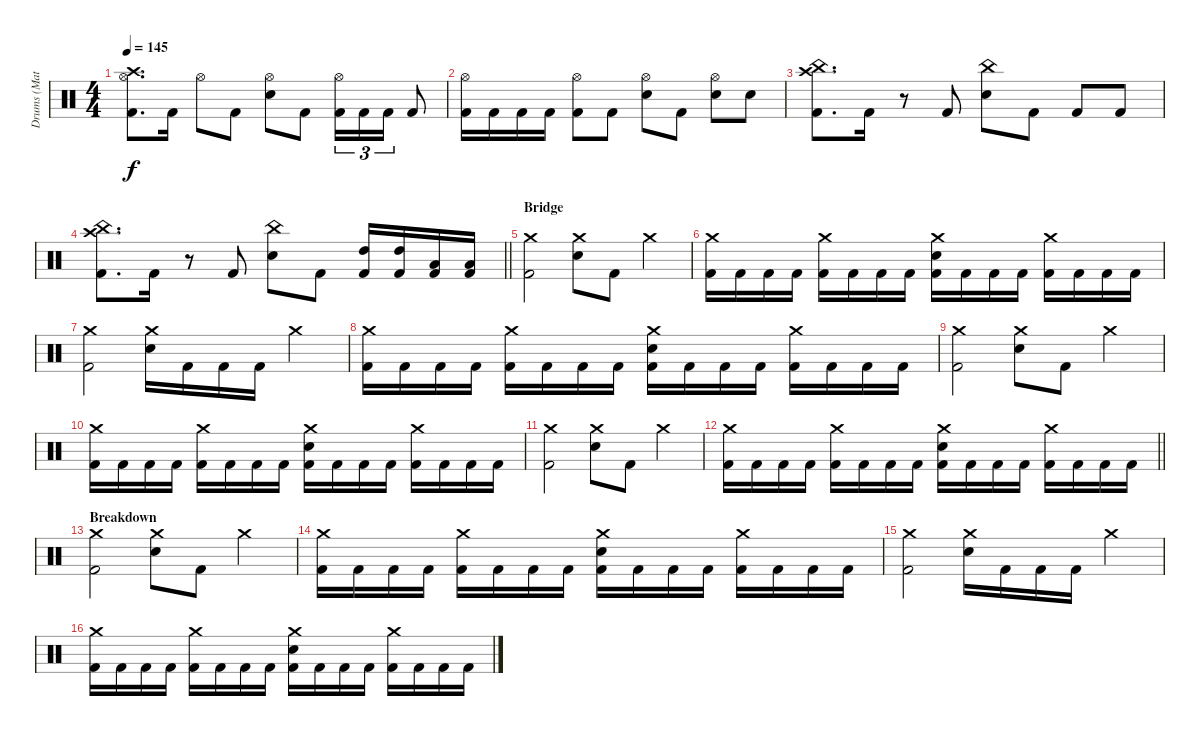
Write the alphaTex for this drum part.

\track ("Drums (Matt Kuykendall)" "Drums (Mat") {instrument percussion}
\staff {score}
\articulation defaults
\ts (4 4)
\tempo 145
\clef neutral
\ks c
("Hi-Hat (open)" "Crash high (hit)" "Kick (hit) 2").8{d dy f} "Kick (hit) 2".16 "Hi-Hat (open)".8 "Kick (hit) 2".8 ("Hi-Hat (open)" "Electric Snare (hit)").8 "Kick (hit) 2".8 ("Hi-Hat (open)" "Kick (hit) 2").16{tu (3 2)} "Kick (hit) 2".16{tu (3 2)} "Kick (hit) 2".16{tu (3 2)} "Kick (hit) 2".8 |
("Hi-Hat (open)" "Kick (hit) 2").16 "Kick (hit) 2".16 "Kick (hit) 2".16 "Kick (hit) 2".16 ("Hi-Hat (open)" "Kick (hit) 2").8 "Kick (hit) 2".8 ("Hi-Hat (open)" "Electric Snare (hit)").8 "Kick (hit) 2".8 ("Hi-Hat (open)" "Electric Snare (hit)").8 "Electric Snare (hit)".8 |
("China (hit)" "Crash high (hit)" "Kick (hit) 2").8{d} "Kick (hit) 2".16 r.8 "Kick (hit) 2".8 ("China (hit)" "Electric Snare (hit)").8 "Kick (hit) 2".8 "Kick (hit) 2".8 "Kick (hit) 2".8 |
\barLineRight lightlight
("China (hit)" "Crash high (hit)" "Kick (hit) 2").8{d} "Kick (hit) 2".16 r.8 "Kick (hit) 2".8 ("China (hit)" "Electric Snare (hit)").8 "Kick (hit) 2".8 ("High Tom (hit)" "Kick (hit) 2").16 ("High Tom (hit)" "Kick (hit) 2").16 ("Low Tom (hit)" "Kick (hit) 2").16 ("Low Tom (hit)" "Kick (hit) 2").16 |
\section ("" "Bridge")
("Crash medium (hit)" "Kick (hit) 2").2 ("Crash medium (hit)" "Electric Snare (hit)").8 "Kick (hit) 2".8 "Crash medium (hit)".4 |
("Crash medium (hit)" "Kick (hit) 2").16 "Kick (hit) 2".16 "Kick (hit) 2".16 "Kick (hit) 2".16 ("Crash medium (hit)" "Kick (hit) 2").16 "Kick (hit) 2".16 "Kick (hit) 2".16 "Kick (hit) 2".16 ("Crash medium (hit)" "Electric Snare (hit)" "Kick (hit) 2").16 "Kick (hit) 2".16 "Kick (hit) 2".16 "Kick (hit) 2".16 ("Crash medium (hit)" "Kick (hit) 2").16 "Kick (hit) 2".16 "Kick (hit) 2".16 "Kick (hit) 2".16 |
("Crash medium (hit)" "Kick (hit) 2").2 ("Crash medium (hit)" "Electric Snare (hit)").16 "Kick (hit) 2".16 "Kick (hit) 2".16 "Kick (hit) 2".16 "Crash medium (hit)".4 |
("Crash medium (hit)" "Kick (hit) 2").16 "Kick (hit) 2".16 "Kick (hit) 2".16 "Kick (hit) 2".16 ("Crash medium (hit)" "Kick (hit) 2").16 "Kick (hit) 2".16 "Kick (hit) 2".16 "Kick (hit) 2".16 ("Crash medium (hit)" "Electric Snare (hit)" "Kick (hit) 2").16 "Kick (hit) 2".16 "Kick (hit) 2".16 "Kick (hit) 2".16 ("Crash medium (hit)" "Kick (hit) 2").16 "Kick (hit) 2".16 "Kick (hit) 2".16 "Kick (hit) 2".16 |
("Crash medium (hit)" "Kick (hit) 2").2 ("Crash medium (hit)" "Electric Snare (hit)").8 "Kick (hit) 2".8 "Crash medium (hit)".4 |
("Crash medium (hit)" "Kick (hit) 2").16 "Kick (hit) 2".16 "Kick (hit) 2".16 "Kick (hit) 2".16 ("Crash medium (hit)" "Kick (hit) 2").16 "Kick (hit) 2".16 "Kick (hit) 2".16 "Kick (hit) 2".16 ("Crash medium (hit)" "Electric Snare (hit)" "Kick (hit) 2").16 "Kick (hit) 2".16 "Kick (hit) 2".16 "Kick (hit) 2".16 ("Crash medium (hit)" "Kick (hit) 2").16 "Kick (hit) 2".16 "Kick (hit) 2".16 "Kick (hit) 2".16 |
("Crash medium (hit)" "Kick (hit) 2").2 ("Crash medium (hit)" "Electric Snare (hit)").8 "Kick (hit) 2".8 "Crash medium (hit)".4 |
\barLineRight lightlight
("Crash medium (hit)" "Kick (hit) 2").16 "Kick (hit) 2".16 "Kick (hit) 2".16 "Kick (hit) 2".16 ("Crash medium (hit)" "Kick (hit) 2").16 "Kick (hit) 2".16 "Kick (hit) 2".16 "Kick (hit) 2".16 ("Crash medium (hit)" "Electric Snare (hit)" "Kick (hit) 2").16 "Kick (hit) 2".16 "Kick (hit) 2".16 "Kick (hit) 2".16 ("Crash medium (hit)" "Kick (hit) 2").16 "Kick (hit) 2".16 "Kick (hit) 2".16 "Kick (hit) 2".16 |
\section ("" "Breakdown")
("Crash medium (hit)" "Kick (hit) 2").2 ("Crash medium (hit)" "Electric Snare (hit)").8 "Kick (hit) 2".8 "Crash medium (hit)".4 |
("Crash medium (hit)" "Kick (hit) 2").16 "Kick (hit) 2".16 "Kick (hit) 2".16 "Kick (hit) 2".16 ("Crash medium (hit)" "Kick (hit) 2").16 "Kick (hit) 2".16 "Kick (hit) 2".16 "Kick (hit) 2".16 ("Crash medium (hit)" "Electric Snare (hit)" "Kick (hit) 2").16 "Kick (hit) 2".16 "Kick (hit) 2".16 "Kick (hit) 2".16 ("Crash medium (hit)" "Kick (hit) 2").16 "Kick (hit) 2".16 "Kick (hit) 2".16 "Kick (hit) 2".16 |
("Crash medium (hit)" "Kick (hit) 2").2 ("Crash medium (hit)" "Electric Snare (hit)").16 "Kick (hit) 2".16 "Kick (hit) 2".16 "Kick (hit) 2".16 "Crash medium (hit)".4 |
("Crash medium (hit)" "Kick (hit) 2").16 "Kick (hit) 2".16 "Kick (hit) 2".16 "Kick (hit) 2".16 ("Crash medium (hit)" "Kick (hit) 2").16 "Kick (hit) 2".16 "Kick (hit) 2".16 "Kick (hit) 2".16 ("Crash medium (hit)" "Electric Snare (hit)" "Kick (hit) 2").16 "Kick (hit) 2".16 "Kick (hit) 2".16 "Kick (hit) 2".16 ("Crash medium (hit)" "Kick (hit) 2").16 "Kick (hit) 2".16 "Kick (hit) 2".16 "Kick (hit) 2".16
